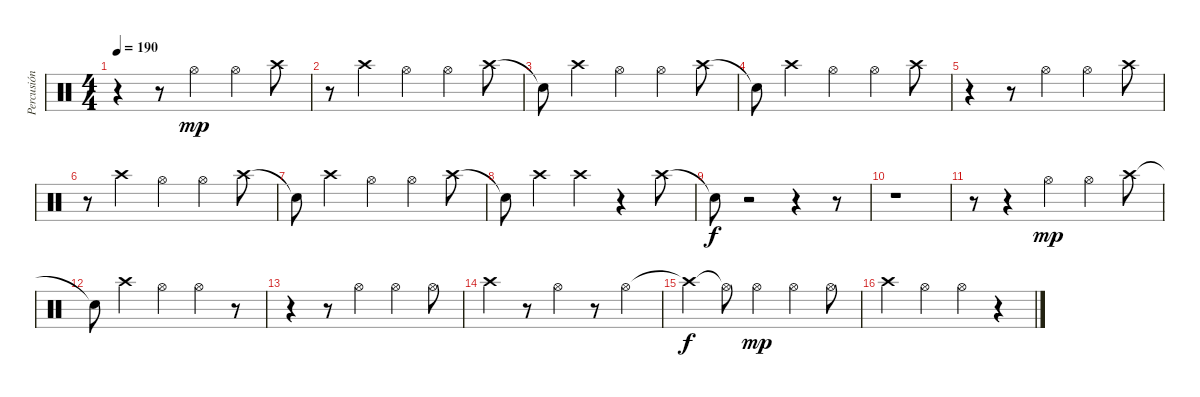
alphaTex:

\track ("Percusión" "Percusión") {instrument percussion}
\staff {score}
\articulation defaults
\ts (4 4)
\tempo 190
\clef neutral
\ks c
r.4{dy mp} r.8 "Hi-Hat (open)".4 "Hi-Hat (open)".4 "Crash high (hit)".8 |
r.8 "Crash high (hit)".4 "Hi-Hat (open)".4 "Hi-Hat (open)".4 "Crash high (hit)".8 |
"Snare (hit)"{t}.8 "Crash high (hit)".4 "Hi-Hat (open)".4 "Hi-Hat (open)".4 "Crash high (hit)".8 |
"Snare (hit)"{t}.8 "Crash high (hit)".4 "Hi-Hat (open)".4 "Hi-Hat (open)".4 "Crash high (hit)".8 |
r.4 r.8 "Hi-Hat (open)".4 "Hi-Hat (open)".4 "Crash high (hit)".8 |
r.8 "Crash high (hit)".4 "Hi-Hat (open)".4 "Hi-Hat (open)".4 "Crash high (hit)".8 |
"Snare (hit)"{t}.8 "Crash high (hit)".4 "Hi-Hat (open)".4 "Hi-Hat (open)".4 "Crash high (hit)".8 |
"Snare (hit)"{t}.8 "Crash high (hit)".4 "Crash high (hit)".4 r.4 "Crash high (hit)".8 |
"Snare (hit)"{t}.8{dy f} r.2 r.4 r.8 |
r.1 |
r.8 r.4 "Hi-Hat (open)".4{dy mp} "Hi-Hat (open)".4 "Crash high (hit)".8 |
"Snare (hit)"{t}.8 "Crash high (hit)".4 "Hi-Hat (open)".4 "Hi-Hat (open)".4 r.8 |
r.4 r.8 "Hi-Hat (open)".4 "Hi-Hat (open)".4 "Hi-Hat (open)".8 |
"Crash high (hit)".4 r.8 "Hi-Hat (open)".4 r.8 "Hi-Hat (open)".4 |
"Crash high (hit)"{t}.4{dy f} "Hi-Hat (open)"{t}.8 "Hi-Hat (open)".4{dy mp} "Hi-Hat (open)".4 "Hi-Hat (open)".8 |
"Crash high (hit)".4 "Hi-Hat (open)".4 "Hi-Hat (open)".4 r.4
